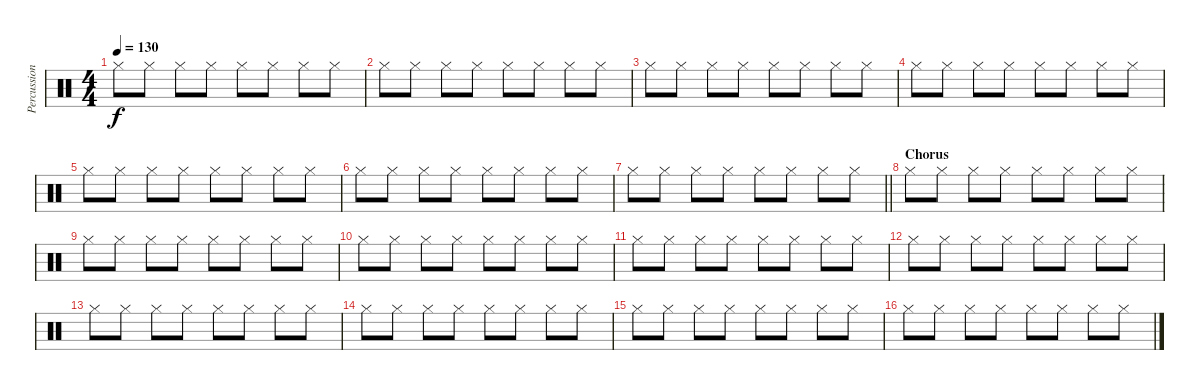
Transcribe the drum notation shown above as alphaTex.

\track ("Percussion" "Percussion") {instrument percussion}
\staff {score}
\articulation defaults
\ts (4 4)
\tempo 130
\clef neutral
\ks c "Hi-Hat (closed)".8{dy f} "Hi-Hat (closed)".8 "Hi-Hat (closed)".8 "Hi-Hat (closed)".8 "Hi-Hat (closed)".8 "Hi-Hat (closed)".8 "Hi-Hat (closed)".8 "Hi-Hat (closed)".8
|
"Hi-Hat (closed)".8 "Hi-Hat (closed)".8 "Hi-Hat (closed)".8 "Hi-Hat (closed)".8 "Hi-Hat (closed)".8 "Hi-Hat (closed)".8 "Hi-Hat (closed)".8 "Hi-Hat (closed)".8 |
"Hi-Hat (closed)".8 "Hi-Hat (closed)".8 "Hi-Hat (closed)".8 "Hi-Hat (closed)".8 "Hi-Hat (closed)".8 "Hi-Hat (closed)".8 "Hi-Hat (closed)".8 "Hi-Hat (closed)".8 |
"Hi-Hat (closed)".8 "Hi-Hat (closed)".8 "Hi-Hat (closed)".8 "Hi-Hat (closed)".8 "Hi-Hat (closed)".8 "Hi-Hat (closed)".8 "Hi-Hat (closed)".8 "Hi-Hat (closed)".8 |
"Hi-Hat (closed)".8 "Hi-Hat (closed)".8 "Hi-Hat (closed)".8 "Hi-Hat (closed)".8 "Hi-Hat (closed)".8 "Hi-Hat (closed)".8 "Hi-Hat (closed)".8 "Hi-Hat (closed)".8 |
"Hi-Hat (closed)".8 "Hi-Hat (closed)".8 "Hi-Hat (closed)".8 "Hi-Hat (closed)".8 "Hi-Hat (closed)".8 "Hi-Hat (closed)".8 "Hi-Hat (closed)".8 "Hi-Hat (closed)".8 |
\barLineRight lightlight "Hi-Hat (closed)".8 "Hi-Hat (closed)".8 "Hi-Hat (closed)".8 "Hi-Hat (closed)".8 "Hi-Hat (closed)".8 "Hi-Hat (closed)".8 "Hi-Hat (closed)".8 "Hi-Hat (closed)".8
|
\section ("" "Chorus")
"Hi-Hat (closed)".8 "Hi-Hat (closed)".8 "Hi-Hat (closed)".8 "Hi-Hat (closed)".8 "Hi-Hat (closed)".8 "Hi-Hat (closed)".8 "Hi-Hat (closed)".8 "Hi-Hat (closed)".8 |
"Hi-Hat (closed)".8 "Hi-Hat (closed)".8 "Hi-Hat (closed)".8 "Hi-Hat (closed)".8 "Hi-Hat (closed)".8 "Hi-Hat (closed)".8 "Hi-Hat (closed)".8 "Hi-Hat (closed)".8 |
"Hi-Hat (closed)".8 "Hi-Hat (closed)".8 "Hi-Hat (closed)".8 "Hi-Hat (closed)".8 "Hi-Hat (closed)".8 "Hi-Hat (closed)".8 "Hi-Hat (closed)".8 "Hi-Hat (closed)".8 |
"Hi-Hat (closed)".8 "Hi-Hat (closed)".8 "Hi-Hat (closed)".8 "Hi-Hat (closed)".8 "Hi-Hat (closed)".8 "Hi-Hat (closed)".8 "Hi-Hat (closed)".8 "Hi-Hat (closed)".8 |
"Hi-Hat (closed)".8 "Hi-Hat (closed)".8 "Hi-Hat (closed)".8 "Hi-Hat (closed)".8 "Hi-Hat (closed)".8 "Hi-Hat (closed)".8 "Hi-Hat (closed)".8 "Hi-Hat (closed)".8 |
"Hi-Hat (closed)".8 "Hi-Hat (closed)".8 "Hi-Hat (closed)".8 "Hi-Hat (closed)".8 "Hi-Hat (closed)".8 "Hi-Hat (closed)".8 "Hi-Hat (closed)".8 "Hi-Hat (closed)".8 |
"Hi-Hat (closed)".8 "Hi-Hat (closed)".8 "Hi-Hat (closed)".8 "Hi-Hat (closed)".8 "Hi-Hat (closed)".8 "Hi-Hat (closed)".8 "Hi-Hat (closed)".8 "Hi-Hat (closed)".8 |
"Hi-Hat (closed)".8 "Hi-Hat (closed)".8 "Hi-Hat (closed)".8 "Hi-Hat (closed)".8 "Hi-Hat (closed)".8 "Hi-Hat (closed)".8 "Hi-Hat (closed)".8 "Hi-Hat (closed)".8 |
"Hi-Hat (closed)".8 "Hi-Hat (closed)".8 "Hi-Hat (closed)".8 "Hi-Hat (closed)".8 "Hi-Hat (closed)".8 "Hi-Hat (closed)".8 "Hi-Hat (closed)".8 "Hi-Hat (closed)".8
